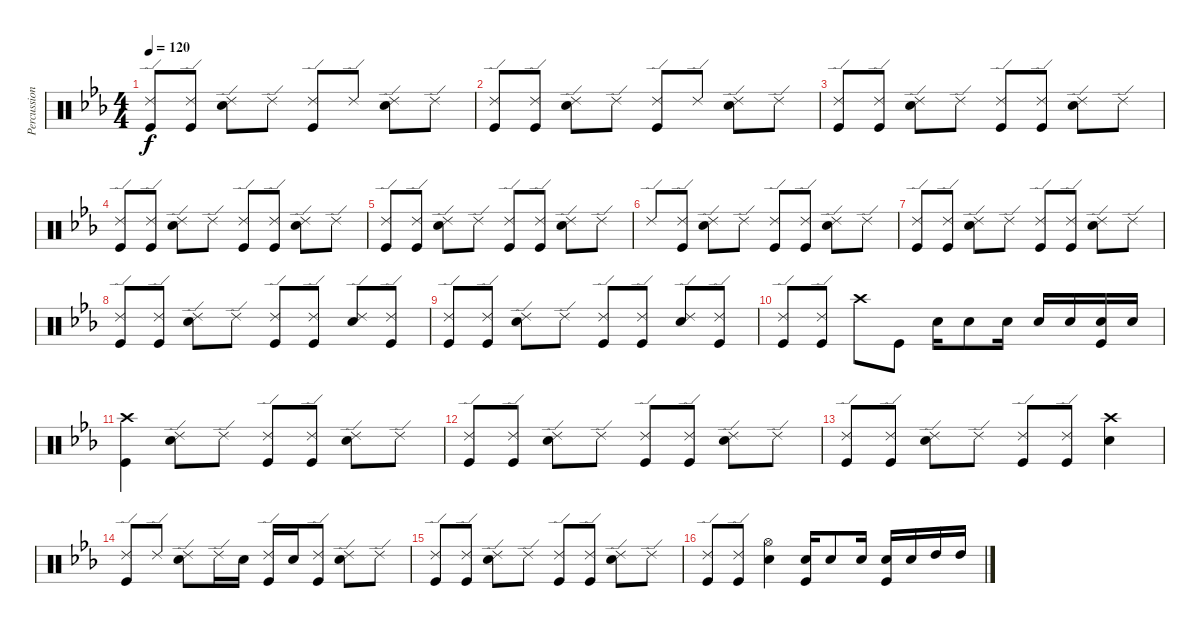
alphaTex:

\track ("Percussion" "Percussion") {instrument percussion}
\staff {score}
\articulation defaults
\ts (4 4)
\tempo 120
\clef neutral
\ks eb
("Ride (edge) 2" "Kick (hit)").8{dy f} ("Ride (edge) 2" "Kick (hit)").8 ("Ride (edge) 2" "Snare (hit) 2").8 "Ride (edge) 2".8 ("Ride (edge) 2" "Kick (hit)").8 "Ride (edge) 2".8 ("Ride (edge) 2" "Snare (hit) 2").8 "Ride (edge) 2".8 |
("Ride (edge) 2" "Kick (hit)").8 ("Ride (edge) 2" "Kick (hit)").8 ("Ride (edge) 2" "Snare (hit) 2").8 "Ride (edge) 2".8 ("Ride (edge) 2" "Kick (hit)").8 "Ride (edge) 2".8 ("Ride (edge) 2" "Snare (hit) 2").8 "Ride (edge) 2".8 |
("Ride (edge) 2" "Kick (hit)").8 ("Ride (edge) 2" "Kick (hit)").8 ("Ride (edge) 2" "Snare (hit) 2").8 "Ride (edge) 2".8 ("Ride (edge) 2" "Kick (hit)").8 ("Ride (edge) 2" "Kick (hit)").8 ("Ride (edge) 2" "Snare (hit) 2").8 "Ride (edge) 2".8 |
("Ride (edge) 2" "Kick (hit)").8 ("Ride (edge) 2" "Kick (hit)").8 ("Ride (edge) 2" "Snare (hit) 2").8 "Ride (edge) 2".8 ("Ride (edge) 2" "Kick (hit)").8 ("Ride (edge) 2" "Kick (hit)").8 ("Ride (edge) 2" "Snare (hit) 2").8 "Ride (edge) 2".8 |
("Ride (edge) 2" "Kick (hit)").8 ("Ride (edge) 2" "Kick (hit)").8 ("Ride (edge) 2" "Snare (hit) 2").8 "Ride (edge) 2".8 ("Ride (edge) 2" "Kick (hit)").8 ("Ride (edge) 2" "Kick (hit)").8 ("Ride (edge) 2" "Snare (hit) 2").8 "Ride (edge) 2".8 |
"Ride (edge) 2".8 ("Ride (edge) 2" "Kick (hit)").8 ("Ride (edge) 2" "Snare (hit) 2").8 "Ride (edge) 2".8 ("Ride (edge) 2" "Kick (hit)").8 ("Ride (edge) 2" "Kick (hit)").8 ("Ride (edge) 2" "Snare (hit) 2").8 "Ride (edge) 2".8 |
("Ride (edge) 2" "Kick (hit)").8 ("Ride (edge) 2" "Kick (hit)").8 ("Ride (edge) 2" "Snare (hit) 2").8 "Ride (edge) 2".8 ("Ride (edge) 2" "Kick (hit)").8 ("Ride (edge) 2" "Kick (hit)").8 ("Ride (edge) 2" "Snare (hit) 2").8 "Ride (edge) 2".8 |
("Ride (edge) 2" "Kick (hit)").8 ("Ride (edge) 2" "Kick (hit)").8 ("Ride (edge) 2" "Snare (hit) 2").8 "Ride (edge) 2".8 ("Ride (edge) 2" "Kick (hit)").8 ("Ride (edge) 2" "Kick (hit)").8 ("Ride (edge) 2" "Snare (hit) 2").8 ("Ride (edge) 2" "Kick (hit)").8 |
("Ride (edge) 2" "Kick (hit)").8 ("Ride (edge) 2" "Kick (hit)").8 ("Ride (edge) 2" "Snare (hit) 2").8 "Ride (edge) 2".8 ("Ride (edge) 2" "Kick (hit)").8 ("Ride (edge) 2" "Kick (hit)").8 ("Ride (edge) 2" "Snare (hit) 2").8 ("Ride (edge) 2" "Kick (hit)").8 |
("Ride (edge) 2" "Kick (hit)").8 ("Ride (edge) 2" "Kick (hit)").8 "Crash high (hit)".8 "Kick (hit)".8 "Snare (hit) 2".16 "Snare (hit) 2".8 "Snare (hit) 2".16 "Snare (hit) 2".16 "Snare (hit) 2".16 ("Snare (hit) 2" "Kick (hit)").16 "Snare (hit) 2".16 |
("Crash high (hit)" "Kick (hit)").4 ("Ride (edge) 2" "Snare (hit) 2").8 "Ride (edge) 2".8 ("Ride (edge) 2" "Kick (hit)").8 ("Ride (edge) 2" "Kick (hit)").8 ("Ride (edge) 2" "Snare (hit) 2").8 "Ride (edge) 2".8 |
("Ride (edge) 2" "Kick (hit)").8 ("Ride (edge) 2" "Kick (hit)").8 ("Ride (edge) 2" "Snare (hit) 2").8 "Ride (edge) 2".8 ("Ride (edge) 2" "Kick (hit)").8 ("Ride (edge) 2" "Kick (hit)").8 ("Ride (edge) 2" "Snare (hit) 2").8 "Ride (edge) 2".8 |
("Ride (edge) 2" "Kick (hit)").8 ("Ride (edge) 2" "Kick (hit)").8 ("Ride (edge) 2" "Snare (hit) 2").8 "Ride (edge) 2".8 ("Ride (edge) 2" "Kick (hit)").8 ("Ride (edge) 2" "Kick (hit)").8 ("Crash high (hit)" "Snare (hit) 2").4 |
("Ride (edge) 2" "Kick (hit)").8 "Ride (edge) 2".8 ("Ride (edge) 2" "Snare (hit) 2").8 "Ride (edge) 2".16 "Snare (hit) 2".16 ("Ride (edge) 2" "Kick (hit)").16 "Snare (hit) 2".16 ("Ride (edge) 2" "Kick (hit)").8 ("Ride (edge) 2" "Snare (hit) 2").8 "Ride (edge) 2".8 |
("Ride (edge) 2" "Kick (hit)").8 ("Ride (edge) 2" "Kick (hit)").8 ("Ride (edge) 2" "Snare (hit) 2").8 "Ride (edge) 2".8 ("Ride (edge) 2" "Kick (hit)").8 ("Ride (edge) 2" "Kick (hit)").8 ("Ride (edge) 2" "Snare (hit) 2").8 "Ride (edge) 2".8 |
("Ride (edge) 2" "Kick (hit)").8 ("Ride (edge) 2" "Kick (hit)").8 ("Hi-Hat (open)" "Snare (hit) 2").4 ("Snare (hit) 2" "Kick (hit)").16 "Snare (hit) 2".8 "Snare (hit) 2".16 ("Snare (hit) 2" "Kick (hit)").16 "Snare (hit) 2".16 "High Tom (hit)".16 "High Tom (hit)".16
